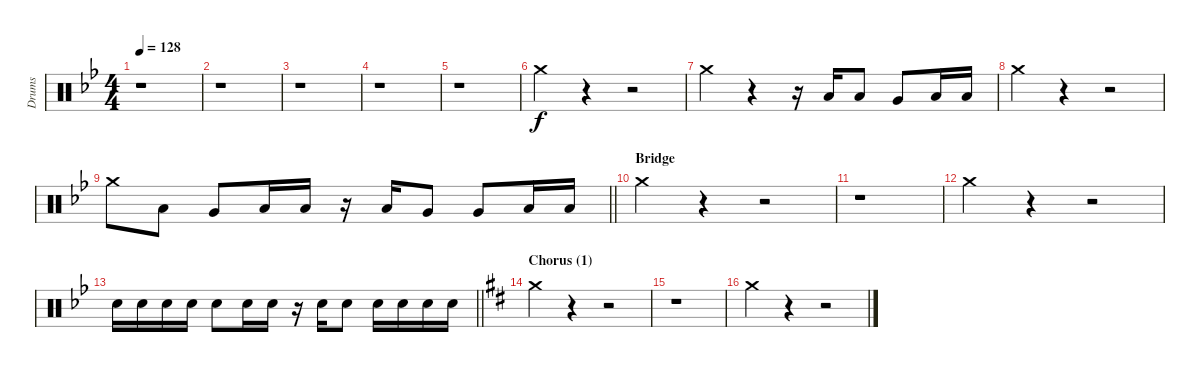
\track ("Drums" "Drums") {instrument percussion}
\staff {score}
\articulation defaults
\ts (4 4)
\tempo 128
\clef neutral
\ks gminor
r.1{dy f} |
r.1 |
r.1 |
r.1 |
r.1 |
"Crash medium (hit)".4 r.4 r.2 |
"Crash medium (hit)".4 r.4 r.16 "Low Tom (hit)".16 "Low Tom (hit)".8 "Very Low Tom (hit)".8 "Low Floor Tom (hit)".16 "Low Floor Tom (hit)".16 |
"Crash medium (hit)".4 r.4 r.2 |
\barLineRight lightlight "Crash medium (hit)".8 "Low Tom (hit)".8 "Very Low Tom (hit)".8 "Low Tom (hit)".16 "Low Tom (hit)".16
r.16 "Low Tom (hit)".16 "Very Low Tom (hit)".8 "Very Low Tom (hit)".8 "Low Floor Tom (hit)".16 "Low Floor Tom (hit)".16 |
\section ("" "Bridge")
"Crash medium (hit)".4 r.4 r.2 |
r.1 |
"Crash medium (hit)".4 r.4 r.2 |
\barLineRight lightlight "Electric Snare (hit)".16 "Electric Snare (hit)".16 "Electric Snare (hit)".16 "Electric Snare (hit)".16 "Electric Snare (hit)".8 "Electric Snare (hit)".16 "Electric Snare (hit)".16
r.16 "Electric Snare (hit)".16 "Electric Snare (hit)".8 "Electric Snare (hit)".16 "Electric Snare (hit)".16 "Electric Snare (hit)".16 "Electric Snare (hit)".16 |
\section ("" "Chorus (1)")
\ks d "Crash medium (hit)".4
r.4 r.2 |
r.1 |
"Crash medium (hit)".4 r.4 r.2
